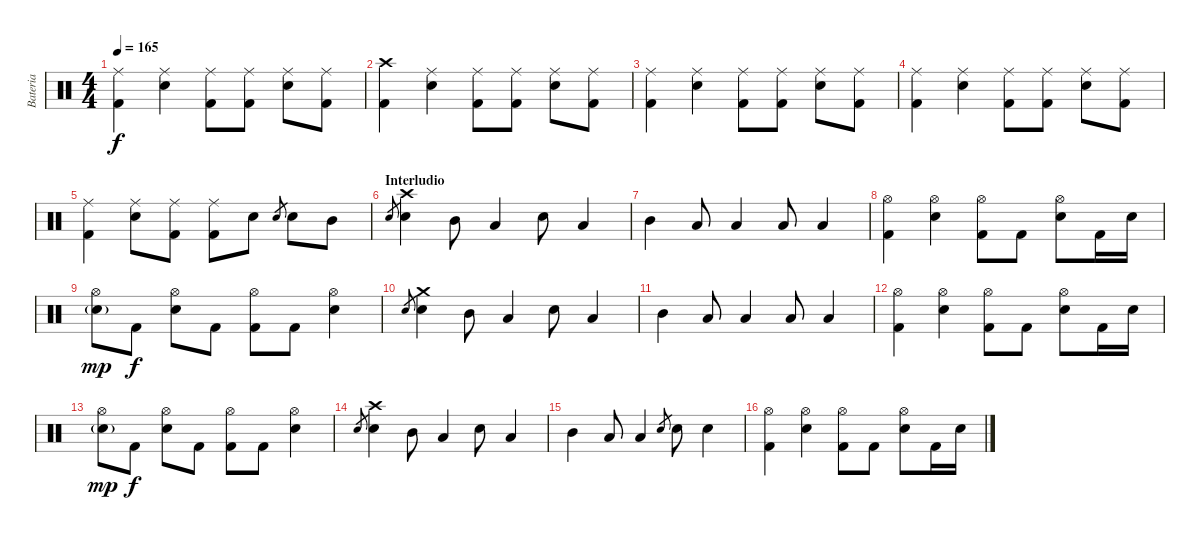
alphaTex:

\track ("Bateria" "Bateria") {instrument percussion}
\staff {score}
\articulation defaults
\ts (4 4)
\tempo 165
\clef neutral
\ks c
("Ride (middle)" "Kick (hit) 2").4{dy f} ("Ride (middle)" "Electric Snare (hit)").4 ("Ride (middle)" "Kick (hit) 2").8 ("Ride (middle)" "Kick (hit) 2").8 ("Ride (middle)" "Electric Snare (hit)").8 ("Ride (middle)" "Kick (hit) 2").8 |
("Crash high (hit)" "Kick (hit) 2").4 ("Ride (middle)" "Electric Snare (hit)").4 ("Ride (middle)" "Kick (hit) 2").8 ("Ride (middle)" "Kick (hit) 2").8 ("Ride (middle)" "Electric Snare (hit)").8 ("Ride (middle)" "Kick (hit) 2").8 |
("Ride (middle)" "Kick (hit) 2").4 ("Ride (middle)" "Electric Snare (hit)").4 ("Ride (middle)" "Kick (hit) 2").8 ("Ride (middle)" "Kick (hit) 2").8 ("Ride (middle)" "Electric Snare (hit)").8 ("Ride (middle)" "Kick (hit) 2").8 |
("Ride (middle)" "Kick (hit) 2").4 ("Ride (middle)" "Electric Snare (hit)").4 ("Ride (middle)" "Kick (hit) 2").8 ("Ride (middle)" "Kick (hit) 2").8 ("Ride (middle)" "Electric Snare (hit)").8 ("Ride (middle)" "Kick (hit) 2").8 |
("Ride (middle)" "Kick (hit) 2").4 ("Ride (middle)" "Electric Snare (hit)").8 ("Ride (middle)" "Kick (hit) 2").8 ("Ride (middle)" "Kick (hit) 2").8 "Electric Snare (hit)".8 "Electric Snare (hit)".8{gr} "Electric Snare (hit)".8 "Mid Tom (hit)".8 |
\section ("" "Interludio")
"Electric Snare (hit)".8{gr} ("Crash high (hit)" "Electric Snare (hit)").4 "Mid Tom (hit)".8 "Low Tom (hit)".4 "Electric Snare (hit)".8 "Low Tom (hit)".4 |
"Mid Tom (hit)".4 "Low Tom (hit)".8 "Low Floor Tom (hit)".4 "Low Tom (hit)".8 "Low Tom (hit)".4 |
("Hi-Hat (open)" "Kick (hit) 2").4 ("Hi-Hat (open)" "Electric Snare (hit)").4 ("Hi-Hat (open)" "Kick (hit) 2").8 "Kick (hit) 2".8 ("Hi-Hat (open)" "Electric Snare (hit)").8 "Kick (hit) 2".16 "Electric Snare (hit)".16 |
("Hi-Hat (open)" "Electric Snare (hit)"{g}).8{dy mp} "Kick (hit) 2".8{dy f} ("Hi-Hat (open)" "Electric Snare (hit)").8 "Kick (hit) 2".8 ("Hi-Hat (open)" "Kick (hit) 2").8 "Kick (hit) 2".8 ("Hi-Hat (open)" "Electric Snare (hit)").4 |
"Electric Snare (hit)".8{gr} ("Crash medium (hit)" "Electric Snare (hit)").4 "Mid Tom (hit)".8 "Low Tom (hit)".4 "Electric Snare (hit)".8 "Low Tom (hit)".4 |
"Mid Tom (hit)".4 "Low Tom (hit)".8 "Low Floor Tom (hit)".4 "Low Tom (hit)".8 "Low Tom (hit)".4 |
("Hi-Hat (open)" "Kick (hit) 2").4 ("Hi-Hat (open)" "Electric Snare (hit)").4 ("Hi-Hat (open)" "Kick (hit) 2").8 "Kick (hit) 2".8 ("Hi-Hat (open)" "Electric Snare (hit)").8 "Kick (hit) 2".16 "Electric Snare (hit)".16 |
("Hi-Hat (open)" "Electric Snare (hit)"{g}).8{dy mp} "Kick (hit) 2".8{dy f} ("Hi-Hat (open)" "Electric Snare (hit)").8 "Kick (hit) 2".8 ("Hi-Hat (open)" "Kick (hit) 2").8 "Kick (hit) 2".8 ("Hi-Hat (open)" "Electric Snare (hit)").4 |
"Electric Snare (hit)".8{gr} ("Crash high (hit)" "Electric Snare (hit)").4 "Mid Tom (hit)".8 "Low Tom (hit)".4 "Electric Snare (hit)".8 "Low Tom (hit)".4 |
"Mid Tom (hit)".4 "Low Tom (hit)".8 "Low Floor Tom (hit)".4 "Electric Snare (hit)".8{gr} "Electric Snare (hit)".8 "Electric Snare (hit)".4 |
("Hi-Hat (open)" "Kick (hit) 2").4 ("Hi-Hat (open)" "Electric Snare (hit)").4 ("Hi-Hat (open)" "Kick (hit) 2").8 "Kick (hit) 2".8 ("Hi-Hat (open)" "Electric Snare (hit)").8 "Kick (hit) 2".16 "Electric Snare (hit)".16
